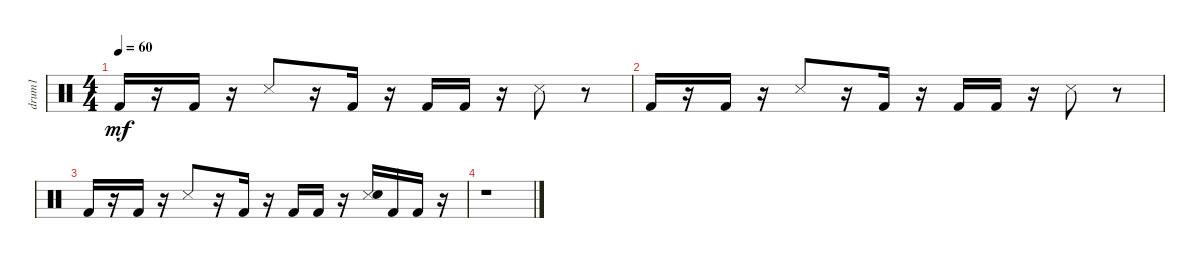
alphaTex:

\track ("drum1" "drum1") {instrument percussion}
\staff {score}
\articulation defaults
\ts (4 4)
\tempo 60
\clef neutral
\ks c "Kick (hit) 2".16{dy mf}
r.16 "Kick (hit) 2".16 r.16 "Snare (side stick) 3".8 r.16 "Kick (hit) 2".16 r.16 "Kick (hit) 2".16 "Kick (hit) 2".16 r.16 "Snare (side stick) 3".8 r.8 |
"Kick (hit) 2".16 r.16 "Kick (hit) 2".16 r.16 "Snare (side stick) 3".8 r.16 "Kick (hit) 2".16 r.16 "Kick (hit) 2".16 "Kick (hit) 2".16 r.16 "Snare (side stick) 3".8 r.8 |
"Kick (hit) 2".16 r.16 "Kick (hit) 2".16 r.16 "Snare (side stick) 3".8 r.16 "Kick (hit) 2".16 r.16 "Kick (hit) 2".16 "Kick (hit) 2".16 r.16 ("Snare (side stick) 3" "Snare (hit) 2").16 "Kick (hit) 2".16 "Kick (hit) 2".16 r.16 |
r.1
